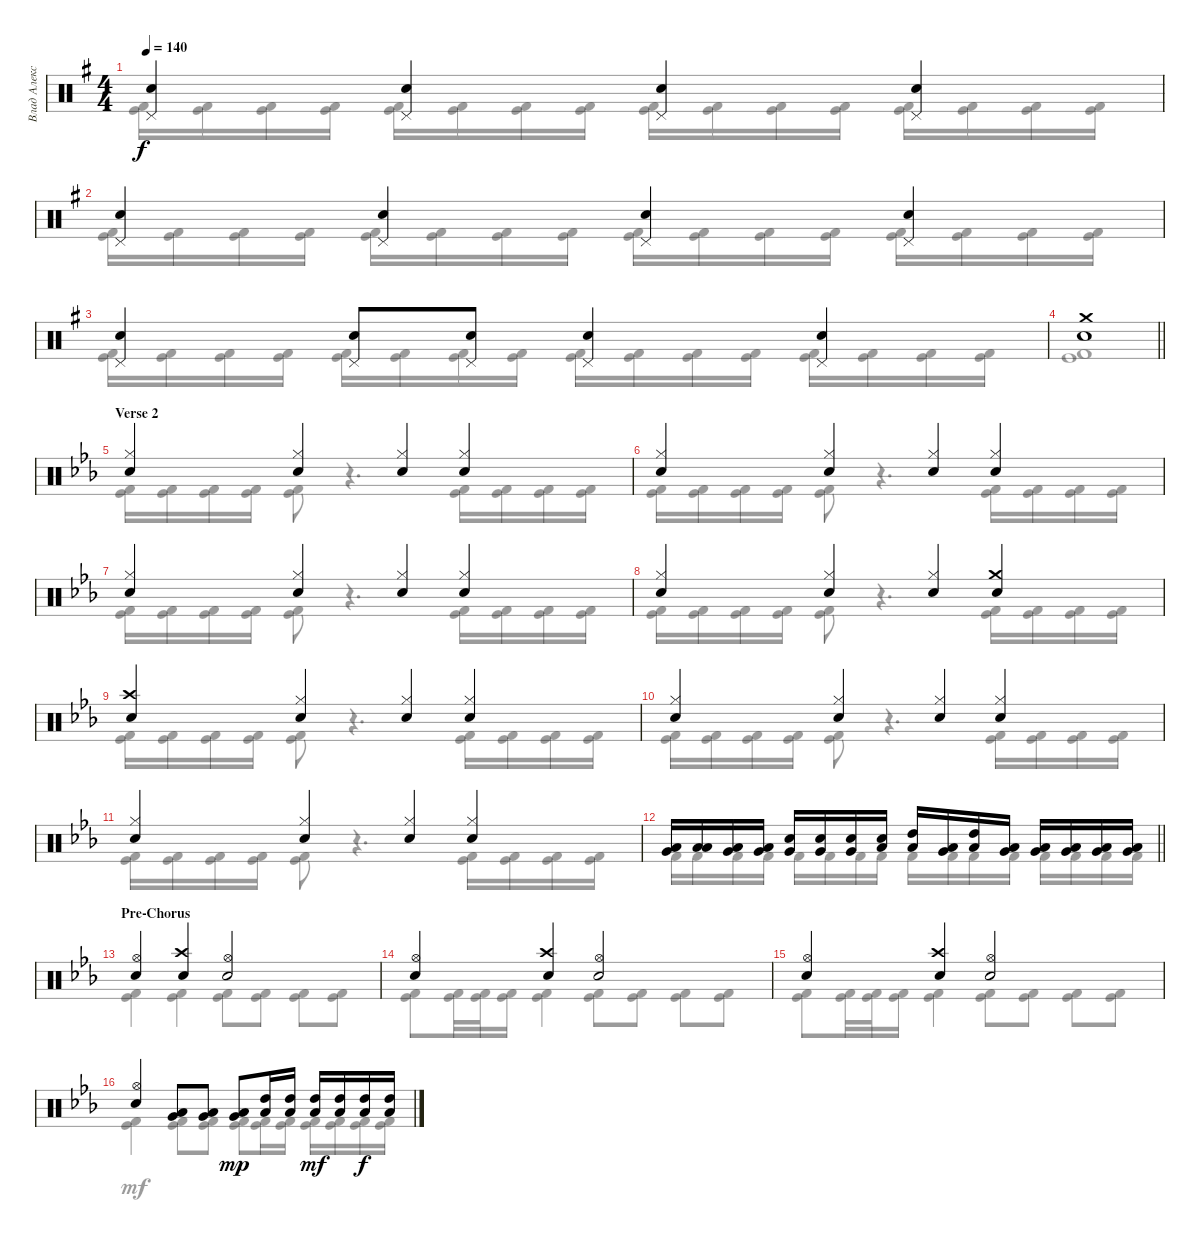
\track ("Влад Алексеенко" "Влад Алекс") {instrument percussion}
\staff {score}
\articulation defaults
\voice
\ts (4 4)
\tempo 140
\clef neutral
\ks g
("Electric Snare (hit)" "Pedal Hi-Hat (hit)").4{dy f} ("Electric Snare (hit)" "Pedal Hi-Hat (hit)").4 ("Electric Snare (hit)" "Pedal Hi-Hat (hit)").4 ("Electric Snare (hit)" "Pedal Hi-Hat (hit)").4 |
("Electric Snare (hit)" "Pedal Hi-Hat (hit)").4 ("Electric Snare (hit)" "Pedal Hi-Hat (hit)").4 ("Electric Snare (hit)" "Pedal Hi-Hat (hit)").4 ("Electric Snare (hit)" "Pedal Hi-Hat (hit)").4 |
("Electric Snare (hit)" "Pedal Hi-Hat (hit)").4 ("Electric Snare (hit)" "Pedal Hi-Hat (hit)").8 ("Electric Snare (hit)" "Pedal Hi-Hat (hit)").8 ("Electric Snare (hit)" "Pedal Hi-Hat (hit)").4 ("Electric Snare (hit)" "Pedal Hi-Hat (hit)").4 |
\barLineRight lightlight
("Electric Snare (hit)" "Crash medium (hit)").1 |
\section ("" "Verse 2")
\ks eb
("Electric Snare (hit)" "Hi-Hat (closed)").4 ("Electric Snare (hit)" "Hi-Hat (closed)").4 ("Electric Snare (hit)" "Hi-Hat (closed)").4 ("Electric Snare (hit)" "Hi-Hat (closed)").4 |
("Electric Snare (hit)" "Hi-Hat (closed)").4 ("Electric Snare (hit)" "Hi-Hat (closed)").4 ("Electric Snare (hit)" "Hi-Hat (closed)").4 ("Electric Snare (hit)" "Hi-Hat (closed)").4 |
("Electric Snare (hit)" "Hi-Hat (closed)").4 ("Electric Snare (hit)" "Hi-Hat (closed)").4 ("Electric Snare (hit)" "Hi-Hat (closed)").4 ("Electric Snare (hit)" "Hi-Hat (closed)").4 |
("Electric Snare (hit)" "Hi-Hat (closed)").4 ("Electric Snare (hit)" "Hi-Hat (closed)").4 ("Electric Snare (hit)" "Hi-Hat (closed)").4 ("Electric Snare (hit)" "Crash medium (hit)").4 |
("Electric Snare (hit)" "Crash high (hit)").4 ("Electric Snare (hit)" "Hi-Hat (closed)").4 ("Electric Snare (hit)" "Hi-Hat (closed)").4 ("Electric Snare (hit)" "Hi-Hat (closed)").4 |
("Electric Snare (hit)" "Hi-Hat (closed)").4 ("Electric Snare (hit)" "Hi-Hat (closed)").4 ("Electric Snare (hit)" "Hi-Hat (closed)").4 ("Electric Snare (hit)" "Hi-Hat (closed)").4 |
("Electric Snare (hit)" "Hi-Hat (closed)").4 ("Electric Snare (hit)" "Hi-Hat (closed)").4 ("Electric Snare (hit)" "Hi-Hat (closed)").4 ("Electric Snare (hit)" "Hi-Hat (closed)").4 |
\barLineRight lightlight
("Low Tom (hit)" "Very Low Tom (hit)").16 ("Low Tom (hit)" "Low Tom (hit)").16 ("Low Tom (hit)" "Very Low Tom (hit)").16 ("Very Low Tom (hit)" "Low Tom (hit)").16 ("Electric Snare (hit)" "Very Low Tom (hit)").16 ("Electric Snare (hit)" "Very Low Tom (hit)").16 ("Electric Snare (hit)" "Very Low Tom (hit)").16 ("Electric Snare (hit)" "Low Tom (hit)").16 ("High Tom (hit)" "Low Tom (hit)").16 ("Low Tom (hit)" "Very Low Tom (hit)").16 ("High Tom (hit)" "Low Tom (hit)").16 ("Low Tom (hit)" "Very Low Tom (hit)").16 ("Very Low Tom (hit)" "Low Tom (hit)").16 ("Low Tom (hit)" "Very Low Tom (hit)").16 ("Very Low Tom (hit)" "Low Tom (hit)").16 ("Low Tom (hit)" "Very Low Tom (hit)").16 |
\section ("" "Pre-Chorus")
("Hi-Hat (open)" "Electric Snare (hit)").4 ("Crash high (hit)" "Electric Snare (hit)").4 ("Hi-Hat (open)" "Electric Snare (hit)").2 |
("Hi-Hat (open)" "Electric Snare (hit)").4 ("Crash high (hit)" "Electric Snare (hit)").4 ("Hi-Hat (open)" "Electric Snare (hit)").2 |
("Hi-Hat (open)" "Electric Snare (hit)").4 ("Crash high (hit)" "Electric Snare (hit)").4 ("Hi-Hat (open)" "Electric Snare (hit)").2 |
("Electric Snare (hit)" "Hi-Hat (open)").4 ("Very Low Tom (hit)" "Low Floor Tom (hit)").8 ("Very Low Tom (hit)" "Low Floor Tom (hit)").8 ("Very Low Tom (hit)" "Low Floor Tom (hit)").8{dy mp} ("Low Tom (hit)" "High Tom (hit)").16 ("Low Tom (hit)" "High Tom (hit)").16 ("Low Tom (hit)" "High Tom (hit)").16{dy mf} ("Low Tom (hit)" "High Tom (hit)").16 ("Low Tom (hit)" "High Tom (hit)").16{dy f} ("Low Tom (hit)" "High Tom (hit)").16
\voice
\clef neutral
\ottava regular
\simile none
\ks g
("Kick (hit) 2" "Kick (hit)").16{dy f} ("Kick (hit) 2" "Kick (hit)").16 ("Kick (hit) 2" "Kick (hit)").16 ("Kick (hit) 2" "Kick (hit)").16 ("Kick (hit) 2" "Kick (hit)").16 ("Kick (hit) 2" "Kick (hit)").16 ("Kick (hit) 2" "Kick (hit)").16 ("Kick (hit) 2" "Kick (hit)").16 ("Kick (hit) 2" "Kick (hit)").16 ("Kick (hit) 2" "Kick (hit)").16 ("Kick (hit) 2" "Kick (hit)").16 ("Kick (hit) 2" "Kick (hit)").16 ("Kick (hit) 2" "Kick (hit)").16 ("Kick (hit) 2" "Kick (hit)").16 ("Kick (hit) 2" "Kick (hit)").16 ("Kick (hit) 2" "Kick (hit)").16 |
("Kick (hit) 2" "Kick (hit)").16 ("Kick (hit) 2" "Kick (hit)").16 ("Kick (hit) 2" "Kick (hit)").16 ("Kick (hit) 2" "Kick (hit)").16 ("Kick (hit) 2" "Kick (hit)").16 ("Kick (hit) 2" "Kick (hit)").16 ("Kick (hit) 2" "Kick (hit)").16 ("Kick (hit) 2" "Kick (hit)").16 ("Kick (hit) 2" "Kick (hit)").16 ("Kick (hit) 2" "Kick (hit)").16 ("Kick (hit) 2" "Kick (hit)").16 ("Kick (hit) 2" "Kick (hit)").16 ("Kick (hit) 2" "Kick (hit)").16 ("Kick (hit) 2" "Kick (hit)").16 ("Kick (hit) 2" "Kick (hit)").16 ("Kick (hit) 2" "Kick (hit)").16 |
("Kick (hit) 2" "Kick (hit)").16 ("Kick (hit) 2" "Kick (hit)").16 ("Kick (hit) 2" "Kick (hit)").16 ("Kick (hit) 2" "Kick (hit)").16 ("Kick (hit) 2" "Kick (hit)").16 ("Kick (hit) 2" "Kick (hit)").16 ("Kick (hit) 2" "Kick (hit)").16 ("Kick (hit) 2" "Kick (hit)").16 ("Kick (hit) 2" "Kick (hit)").16 ("Kick (hit) 2" "Kick (hit)").16 ("Kick (hit) 2" "Kick (hit)").16 ("Kick (hit) 2" "Kick (hit)").16 ("Kick (hit) 2" "Kick (hit)").16 ("Kick (hit) 2" "Kick (hit)").16 ("Kick (hit) 2" "Kick (hit)").16 ("Kick (hit) 2" "Kick (hit)").16 |
\barLineRight lightlight
("Kick (hit) 2" "Kick (hit)").1 |
\ks eb
("Kick (hit) 2" "Kick (hit)").16 ("Kick (hit) 2" "Kick (hit)").16 ("Kick (hit) 2" "Kick (hit)").16 ("Kick (hit) 2" "Kick (hit)").16 ("Kick (hit) 2" "Kick (hit)").8 r.4{d} ("Kick (hit) 2" "Kick (hit)").16 ("Kick (hit) 2" "Kick (hit)").16 ("Kick (hit) 2" "Kick (hit)").16 ("Kick (hit) 2" "Kick (hit)").16 |
("Kick (hit) 2" "Kick (hit)").16 ("Kick (hit) 2" "Kick (hit)").16 ("Kick (hit) 2" "Kick (hit)").16 ("Kick (hit) 2" "Kick (hit)").16 ("Kick (hit) 2" "Kick (hit)").8 r.4{d} ("Kick (hit) 2" "Kick (hit)").16 ("Kick (hit) 2" "Kick (hit)").16 ("Kick (hit) 2" "Kick (hit)").16 ("Kick (hit) 2" "Kick (hit)").16 |
("Kick (hit) 2" "Kick (hit)").16 ("Kick (hit) 2" "Kick (hit)").16 ("Kick (hit) 2" "Kick (hit)").16 ("Kick (hit) 2" "Kick (hit)").16 ("Kick (hit) 2" "Kick (hit)").8 r.4{d} ("Kick (hit) 2" "Kick (hit)").16 ("Kick (hit) 2" "Kick (hit)").16 ("Kick (hit) 2" "Kick (hit)").16 ("Kick (hit) 2" "Kick (hit)").16 |
("Kick (hit) 2" "Kick (hit)").16 ("Kick (hit) 2" "Kick (hit)").16 ("Kick (hit) 2" "Kick (hit)").16 ("Kick (hit) 2" "Kick (hit)").16 ("Kick (hit) 2" "Kick (hit)").8 r.4{d} ("Kick (hit) 2" "Kick (hit)").16 ("Kick (hit) 2" "Kick (hit)").16 ("Kick (hit) 2" "Kick (hit)").16 ("Kick (hit) 2" "Kick (hit)").16 |
("Kick (hit) 2" "Kick (hit)").16 ("Kick (hit) 2" "Kick (hit)").16 ("Kick (hit) 2" "Kick (hit)").16 ("Kick (hit) 2" "Kick (hit)").16 ("Kick (hit) 2" "Kick (hit)").8 r.4{d} ("Kick (hit) 2" "Kick (hit)").16 ("Kick (hit) 2" "Kick (hit)").16 ("Kick (hit) 2" "Kick (hit)").16 ("Kick (hit) 2" "Kick (hit)").16 |
("Kick (hit) 2" "Kick (hit)").16 ("Kick (hit) 2" "Kick (hit)").16 ("Kick (hit) 2" "Kick (hit)").16 ("Kick (hit) 2" "Kick (hit)").16 ("Kick (hit) 2" "Kick (hit)").8 r.4{d} ("Kick (hit) 2" "Kick (hit)").16 ("Kick (hit) 2" "Kick (hit)").16 ("Kick (hit) 2" "Kick (hit)").16 ("Kick (hit) 2" "Kick (hit)").16 |
("Kick (hit) 2" "Kick (hit)").16 ("Kick (hit) 2" "Kick (hit)").16 ("Kick (hit) 2" "Kick (hit)").16 ("Kick (hit) 2" "Kick (hit)").16 ("Kick (hit) 2" "Kick (hit)").8 r.4{d} ("Kick (hit) 2" "Kick (hit)").16 ("Kick (hit) 2" "Kick (hit)").16 ("Kick (hit) 2" "Kick (hit)").16 ("Kick (hit) 2" "Kick (hit)").16 |
\barLineRight lightlight "Kick (hit) 2".16 "Kick (hit) 2".16 "Kick (hit) 2".16 "Kick (hit) 2".16 "Kick (hit) 2".16 "Kick (hit) 2".16 "Kick (hit) 2".16 "Kick (hit) 2".16 "Kick (hit) 2".16 "Kick (hit) 2".16 "Kick (hit) 2".16 "Kick (hit) 2".16 "Kick (hit) 2".16 "Kick (hit) 2".16 "Kick (hit) 2".16 "Kick (hit) 2".16
|
("Kick (hit) 2" "Kick (hit)").4 ("Kick (hit) 2" "Kick (hit)").4 ("Kick (hit) 2" "Kick (hit)").8 ("Kick (hit) 2" "Kick (hit)").8 ("Kick (hit) 2" "Kick (hit)").8 ("Kick (hit) 2" "Kick (hit)").8 |
("Kick (hit) 2" "Kick (hit)").8 ("Kick (hit) 2" "Kick (hit)").32 ("Kick (hit) 2" "Kick (hit)").32 ("Kick (hit) 2" "Kick (hit)").16 ("Kick (hit) 2" "Kick (hit)").4 ("Kick (hit) 2" "Kick (hit)").8 ("Kick (hit) 2" "Kick (hit)").8 ("Kick (hit) 2" "Kick (hit)").8 ("Kick (hit) 2" "Kick (hit)").8 |
("Kick (hit) 2" "Kick (hit)").8 ("Kick (hit) 2" "Kick (hit)").32 ("Kick (hit) 2" "Kick (hit)").32 ("Kick (hit) 2" "Kick (hit)").16 ("Kick (hit) 2" "Kick (hit)").4 ("Kick (hit) 2" "Kick (hit)").8 ("Kick (hit) 2" "Kick (hit)").8 ("Kick (hit) 2" "Kick (hit)").8 ("Kick (hit) 2" "Kick (hit)").8 |
("Kick (hit) 2" "Kick (hit)").4{dy mf} ("Kick (hit) 2" "Kick (hit)").8 ("Kick (hit) 2" "Kick (hit)").8 ("Kick (hit) 2" "Kick (hit)").8 ("Kick (hit) 2" "Kick (hit)").16 ("Kick (hit) 2" "Kick (hit)").16 ("Kick (hit) 2" "Kick (hit)").16 ("Kick (hit) 2" "Kick (hit)").16 ("Kick (hit) 2" "Kick (hit)").16 ("Kick (hit) 2" "Kick (hit)").16
